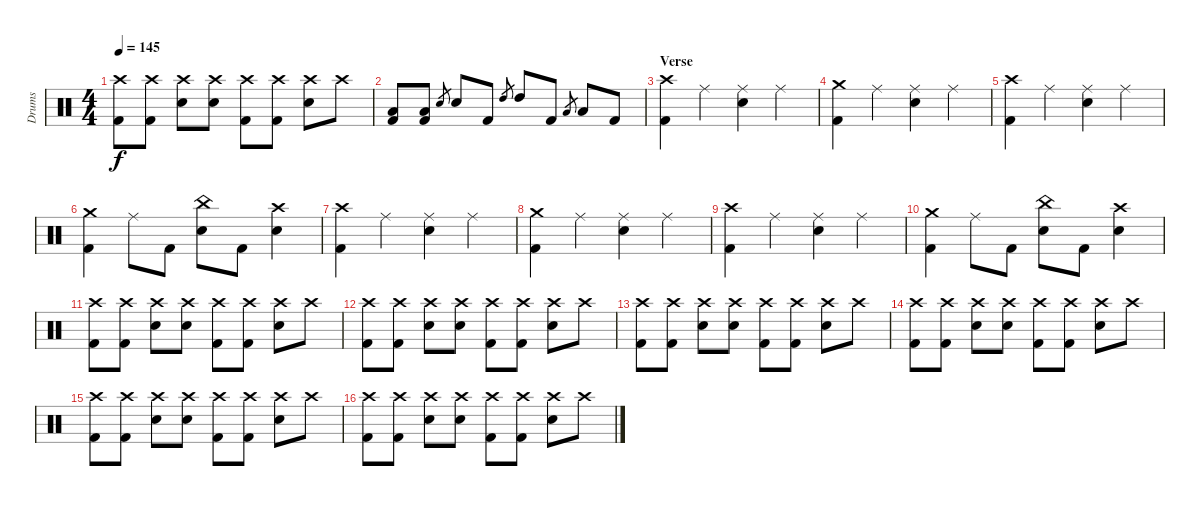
\track ("Drums" "Drums") {instrument percussion}
\staff {score}
\articulation defaults
\ts (4 4)
\tempo 145
\clef neutral
\ks c
("Crash high (hit)" "Kick (hit) 2").8{dy f} ("Crash high (hit)" "Kick (hit) 2").8 ("Crash high (hit)" "Electric Snare (hit)").8 ("Crash high (hit)" "Electric Snare (hit)").8 ("Crash high (hit)" "Kick (hit) 2").8 ("Crash high (hit)" "Kick (hit) 2").8 ("Crash high (hit)" "Electric Snare (hit)").8 "Crash high (hit)".8 |
("Low Floor Tom (hit)" "Kick (hit) 2").8 ("Low Floor Tom (hit)" "Kick (hit) 2").8 "Electric Snare (hit)".8{gr} "Electric Snare (hit)".8 "Kick (hit) 2".8 "High Tom (hit)".8{gr} "High Tom (hit)".8 "Kick (hit) 2".8 "Low Tom (hit)".8{gr} "Low Tom (hit)".8 "Kick (hit) 2".8 |
\section ("" "Verse")
("Crash high (hit)" "Kick (hit) 2").4 "Ride (middle)".4 ("Ride (middle)" "Electric Snare (hit)").4 "Ride (middle)".4 |
("Crash medium (hit)" "Kick (hit) 2").4 "Ride (middle)".4 ("Ride (middle)" "Electric Snare (hit)").4 "Ride (middle)".4 |
("Crash high (hit)" "Kick (hit) 2").4 "Ride (middle)".4 ("Ride (middle)" "Electric Snare (hit)").4 "Ride (middle)".4 |
("Crash medium (hit)" "Kick (hit) 2").4 "Ride (middle)".8 "Kick (hit) 2".8 ("China (hit)" "Electric Snare (hit)").8 "Kick (hit) 2".8 ("Crash high (hit)" "Electric Snare (hit)").4 |
("Crash high (hit)" "Kick (hit) 2").4 "Ride (middle)".4 ("Ride (middle)" "Electric Snare (hit)").4 "Ride (middle)".4 |
("Crash medium (hit)" "Kick (hit) 2").4 "Ride (middle)".4 ("Ride (middle)" "Electric Snare (hit)").4 "Ride (middle)".4 |
("Crash high (hit)" "Kick (hit) 2").4 "Ride (middle)".4 ("Ride (middle)" "Electric Snare (hit)").4 "Ride (middle)".4 |
("Crash medium (hit)" "Kick (hit) 2").4 "Ride (middle)".8 "Kick (hit) 2".8 ("China (hit)" "Electric Snare (hit)").8 "Kick (hit) 2".8 ("Crash high (hit)" "Electric Snare (hit)").4 |
("Crash high (hit)" "Kick (hit) 2").8 ("Crash high (hit)" "Kick (hit) 2").8 ("Crash high (hit)" "Electric Snare (hit)").8 ("Crash high (hit)" "Electric Snare (hit)").8 ("Crash high (hit)" "Kick (hit) 2").8 ("Crash high (hit)" "Kick (hit) 2").8 ("Crash high (hit)" "Electric Snare (hit)").8 "Crash high (hit)".8 |
("Crash high (hit)" "Kick (hit) 2").8 ("Crash high (hit)" "Kick (hit) 2").8 ("Crash high (hit)" "Electric Snare (hit)").8 ("Crash high (hit)" "Electric Snare (hit)").8 ("Crash high (hit)" "Kick (hit) 2").8 ("Crash high (hit)" "Kick (hit) 2").8 ("Crash high (hit)" "Electric Snare (hit)").8 "Crash high (hit)".8 |
("Crash high (hit)" "Kick (hit) 2").8 ("Crash high (hit)" "Kick (hit) 2").8 ("Crash high (hit)" "Electric Snare (hit)").8 ("Crash high (hit)" "Electric Snare (hit)").8 ("Crash high (hit)" "Kick (hit) 2").8 ("Crash high (hit)" "Kick (hit) 2").8 ("Crash high (hit)" "Electric Snare (hit)").8 "Crash high (hit)".8 |
("Crash high (hit)" "Kick (hit) 2").8 ("Crash high (hit)" "Kick (hit) 2").8 ("Crash high (hit)" "Electric Snare (hit)").8 ("Crash high (hit)" "Electric Snare (hit)").8 ("Crash high (hit)" "Kick (hit) 2").8 ("Crash high (hit)" "Kick (hit) 2").8 ("Crash high (hit)" "Electric Snare (hit)").8 "Crash high (hit)".8 |
("Crash high (hit)" "Kick (hit) 2").8 ("Crash high (hit)" "Kick (hit) 2").8 ("Crash high (hit)" "Electric Snare (hit)").8 ("Crash high (hit)" "Electric Snare (hit)").8 ("Crash high (hit)" "Kick (hit) 2").8 ("Crash high (hit)" "Kick (hit) 2").8 ("Crash high (hit)" "Electric Snare (hit)").8 "Crash high (hit)".8 |
("Crash high (hit)" "Kick (hit) 2").8 ("Crash high (hit)" "Kick (hit) 2").8 ("Crash high (hit)" "Electric Snare (hit)").8 ("Crash high (hit)" "Electric Snare (hit)").8 ("Crash high (hit)" "Kick (hit) 2").8 ("Crash high (hit)" "Kick (hit) 2").8 ("Crash high (hit)" "Electric Snare (hit)").8 "Crash high (hit)".8
